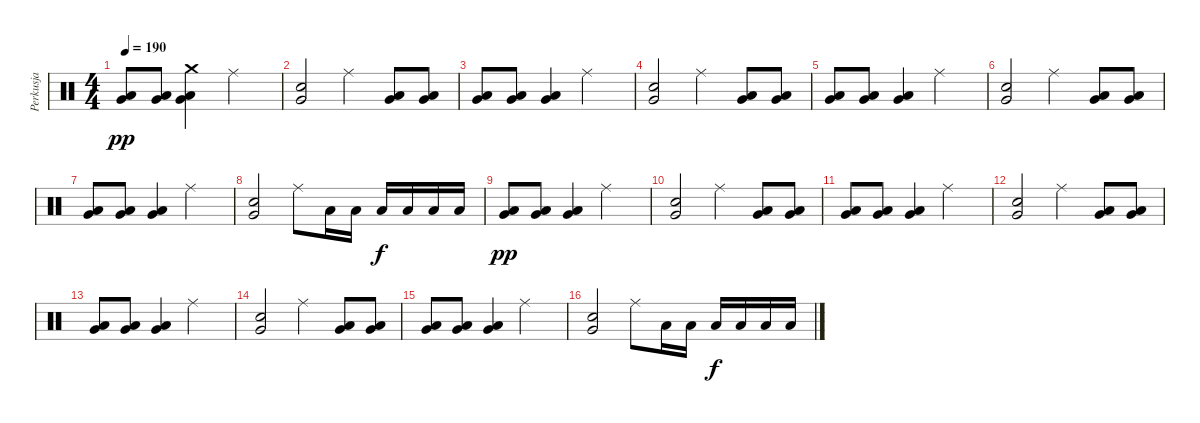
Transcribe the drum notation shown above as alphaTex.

\track ("Perkusja" "Perkusja") {instrument percussion}
\staff {score}
\articulation defaults
\ts (4 4)
\tempo 190
\clef neutral
\ks c
("Very Low Tom (hit)" "Low Floor Tom (hit)").8{dy pp} ("Very Low Tom (hit)" "Low Floor Tom (hit)").8 ("Crash medium (hit)" "Very Low Tom (hit)" "Low Floor Tom (hit)").4 "Ride (middle)".2 |
("Snare (hit) 2" "Very Low Tom (hit)").2 "Ride (middle)".4 ("Very Low Tom (hit)" "Low Floor Tom (hit)").8 ("Very Low Tom (hit)" "Low Floor Tom (hit)").8 |
("Very Low Tom (hit)" "Low Floor Tom (hit)").8 ("Very Low Tom (hit)" "Low Floor Tom (hit)").8 ("Very Low Tom (hit)" "Low Floor Tom (hit)").4 "Ride (middle)".2 |
("Snare (hit) 2" "Very Low Tom (hit)").2 "Ride (middle)".4 ("Very Low Tom (hit)" "Low Floor Tom (hit)").8 ("Very Low Tom (hit)" "Low Floor Tom (hit)").8 |
("Very Low Tom (hit)" "Low Floor Tom (hit)").8 ("Very Low Tom (hit)" "Low Floor Tom (hit)").8 ("Very Low Tom (hit)" "Low Floor Tom (hit)").4 "Ride (middle)".2 |
("Snare (hit) 2" "Very Low Tom (hit)").2 "Ride (middle)".4 ("Very Low Tom (hit)" "Low Floor Tom (hit)").8 ("Very Low Tom (hit)" "Low Floor Tom (hit)").8 |
("Very Low Tom (hit)" "Low Floor Tom (hit)").8 ("Very Low Tom (hit)" "Low Floor Tom (hit)").8 ("Very Low Tom (hit)" "Low Floor Tom (hit)").4 "Ride (middle)".2 |
("Snare (hit) 2" "Very Low Tom (hit)").2 "Ride (middle)".8 "Low Floor Tom (hit)".16 "Low Floor Tom (hit)".16 "Low Floor Tom (hit)".16{dy f} "Low Floor Tom (hit)".16 "Low Floor Tom (hit)".16 "Low Floor Tom (hit)".16 |
("Very Low Tom (hit)" "Low Floor Tom (hit)").8{dy pp} ("Very Low Tom (hit)" "Low Floor Tom (hit)").8 ("Very Low Tom (hit)" "Low Floor Tom (hit)").4 "Ride (middle)".2 |
("Snare (hit) 2" "Very Low Tom (hit)").2 "Ride (middle)".4 ("Very Low Tom (hit)" "Low Floor Tom (hit)").8 ("Very Low Tom (hit)" "Low Floor Tom (hit)").8 |
("Very Low Tom (hit)" "Low Floor Tom (hit)").8 ("Very Low Tom (hit)" "Low Floor Tom (hit)").8 ("Very Low Tom (hit)" "Low Floor Tom (hit)").4 "Ride (middle)".2 |
("Snare (hit) 2" "Very Low Tom (hit)").2 "Ride (middle)".4 ("Very Low Tom (hit)" "Low Floor Tom (hit)").8 ("Very Low Tom (hit)" "Low Floor Tom (hit)").8 |
("Very Low Tom (hit)" "Low Floor Tom (hit)").8 ("Very Low Tom (hit)" "Low Floor Tom (hit)").8 ("Very Low Tom (hit)" "Low Floor Tom (hit)").4 "Ride (middle)".2 |
("Snare (hit) 2" "Very Low Tom (hit)").2 "Ride (middle)".4 ("Very Low Tom (hit)" "Low Floor Tom (hit)").8 ("Very Low Tom (hit)" "Low Floor Tom (hit)").8 |
("Very Low Tom (hit)" "Low Floor Tom (hit)").8 ("Very Low Tom (hit)" "Low Floor Tom (hit)").8 ("Very Low Tom (hit)" "Low Floor Tom (hit)").4 "Ride (middle)".2 |
("Snare (hit) 2" "Very Low Tom (hit)").2 "Ride (middle)".8 "Low Floor Tom (hit)".16 "Low Floor Tom (hit)".16 "Low Floor Tom (hit)".16{dy f} "Low Floor Tom (hit)".16 "Low Floor Tom (hit)".16 "Low Floor Tom (hit)".16
